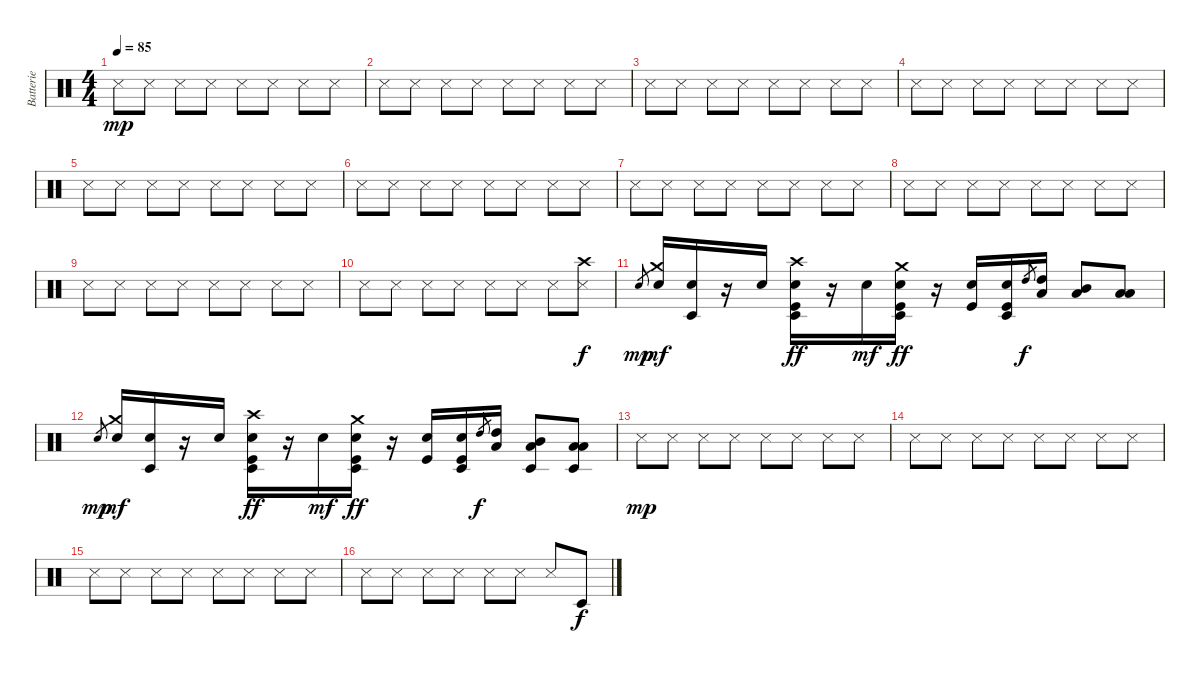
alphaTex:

\track ("Batterie" "Batterie") {instrument percussion}
\staff {score}
\articulation defaults
\ts (4 4)
\tempo 85
\clef neutral
\ks c "Snare (side stick) 3".8{dy mp} "Snare (side stick) 3".8 "Snare (side stick) 3".8 "Snare (side stick) 3".8 "Snare (side stick) 3".8 "Snare (side stick) 3".8 "Snare (side stick) 3".8 "Snare (side stick) 3".8
|
"Snare (side stick) 3".8 "Snare (side stick) 3".8 "Snare (side stick) 3".8 "Snare (side stick) 3".8 "Snare (side stick) 3".8 "Snare (side stick) 3".8 "Snare (side stick) 3".8 "Snare (side stick) 3".8 |
"Snare (side stick) 3".8 "Snare (side stick) 3".8 "Snare (side stick) 3".8 "Snare (side stick) 3".8 "Snare (side stick) 3".8 "Snare (side stick) 3".8 "Snare (side stick) 3".8 "Snare (side stick) 3".8 |
"Snare (side stick) 3".8 "Snare (side stick) 3".8 "Snare (side stick) 3".8 "Snare (side stick) 3".8 "Snare (side stick) 3".8 "Snare (side stick) 3".8 "Snare (side stick) 3".8 "Snare (side stick) 3".8 |
"Snare (side stick) 3".8 "Snare (side stick) 3".8 "Snare (side stick) 3".8 "Snare (side stick) 3".8 "Snare (side stick) 3".8 "Snare (side stick) 3".8 "Snare (side stick) 3".8 "Snare (side stick) 3".8 |
"Snare (side stick) 3".8 "Snare (side stick) 3".8 "Snare (side stick) 3".8 "Snare (side stick) 3".8 "Snare (side stick) 3".8 "Snare (side stick) 3".8 "Snare (side stick) 3".8 "Snare (side stick) 3".8 |
"Snare (side stick) 3".8 "Snare (side stick) 3".8 "Snare (side stick) 3".8 "Snare (side stick) 3".8 "Snare (side stick) 3".8 "Snare (side stick) 3".8 "Snare (side stick) 3".8 "Snare (side stick) 3".8 |
"Snare (side stick) 3".8 "Snare (side stick) 3".8 "Snare (side stick) 3".8 "Snare (side stick) 3".8 "Snare (side stick) 3".8 "Snare (side stick) 3".8 "Snare (side stick) 3".8 "Snare (side stick) 3".8 |
"Snare (side stick) 3".8 "Snare (side stick) 3".8 "Snare (side stick) 3".8 "Snare (side stick) 3".8 "Snare (side stick) 3".8 "Snare (side stick) 3".8 "Snare (side stick) 3".8 "Snare (side stick) 3".8 |
"Snare (side stick) 3".8 "Snare (side stick) 3".8 "Snare (side stick) 3".8 "Snare (side stick) 3".8 "Snare (side stick) 3".8 "Snare (side stick) 3".8 "Snare (side stick) 3".8 ("Crash high (hit)" "Snare (side stick) 3").8{dy f} |
"Electric Snare (hit)".8{gr dy mp} ("Crash medium (hit)" "Electric Snare (hit)").16{dy mf} ("Electric Snare (hit)" "Timbale low (hit)").16 r.16 "Electric Snare (hit)".16 ("Crash high (hit)" "Electric Snare (hit)" "Timbale low (hit)" "Kick (hit)").16{dy ff} r.16 "Electric Snare (hit)".16{dy mf} ("Crash medium (hit)" "Electric Snare (hit)" "Timbale low (hit)" "Kick (hit)").16{dy ff} r.16 ("Electric Snare (hit)" "Kick (hit)").16 ("Electric Snare (hit)" "Timbale low (hit)" "Kick (hit)").16 "High Tom (hit)".8{gr dy f} ("High Tom (hit)" "Low Tom (hit)").16 ("Mid Tom (hit)" "Low Tom (hit)").8 ("Low Tom (hit)" "Low Tom (hit)").8 |
"Electric Snare (hit)".8{gr dy mp} ("Crash medium (hit)" "Electric Snare (hit)").16{dy mf} ("Electric Snare (hit)" "Timbale low (hit)").16 r.16 "Electric Snare (hit)".16 ("Crash high (hit)" "Electric Snare (hit)" "Timbale low (hit)" "Kick (hit)").16{dy ff} r.16 "Electric Snare (hit)".16{dy mf} ("Crash medium (hit)" "Electric Snare (hit)" "Timbale low (hit)" "Kick (hit)").16{dy ff} r.16 ("Electric Snare (hit)" "Kick (hit)").16 ("Electric Snare (hit)" "Timbale low (hit)" "Kick (hit)").16 "High Tom (hit)".8{gr dy f} ("High Tom (hit)" "Low Tom (hit)").16 ("Timbale low (hit)" "Mid Tom (hit)" "Low Tom (hit)").8 ("Timbale low (hit)" "Low Tom (hit)" "Low Tom (hit)").8 |
"Snare (side stick) 3".8{dy mp} "Snare (side stick) 3".8 "Snare (side stick) 3".8 "Snare (side stick) 3".8 "Snare (side stick) 3".8 "Snare (side stick) 3".8 "Snare (side stick) 3".8 "Snare (side stick) 3".8 |
"Snare (side stick) 3".8 "Snare (side stick) 3".8 "Snare (side stick) 3".8 "Snare (side stick) 3".8 "Snare (side stick) 3".8 "Snare (side stick) 3".8 "Snare (side stick) 3".8 "Snare (side stick) 3".8 |
"Snare (side stick) 3".8 "Snare (side stick) 3".8 "Snare (side stick) 3".8 "Snare (side stick) 3".8 "Snare (side stick) 3".8 "Snare (side stick) 3".8 "Snare (side stick) 3".8 "Snare (side stick) 3".8 |
"Snare (side stick) 3".8 "Snare (side stick) 3".8 "Snare (side stick) 3".8 "Snare (side stick) 3".8 "Snare (side stick) 3".8 "Snare (side stick) 3".8 "Snare (side stick) 3".8 "Timbale low (hit)".8{dy f}
